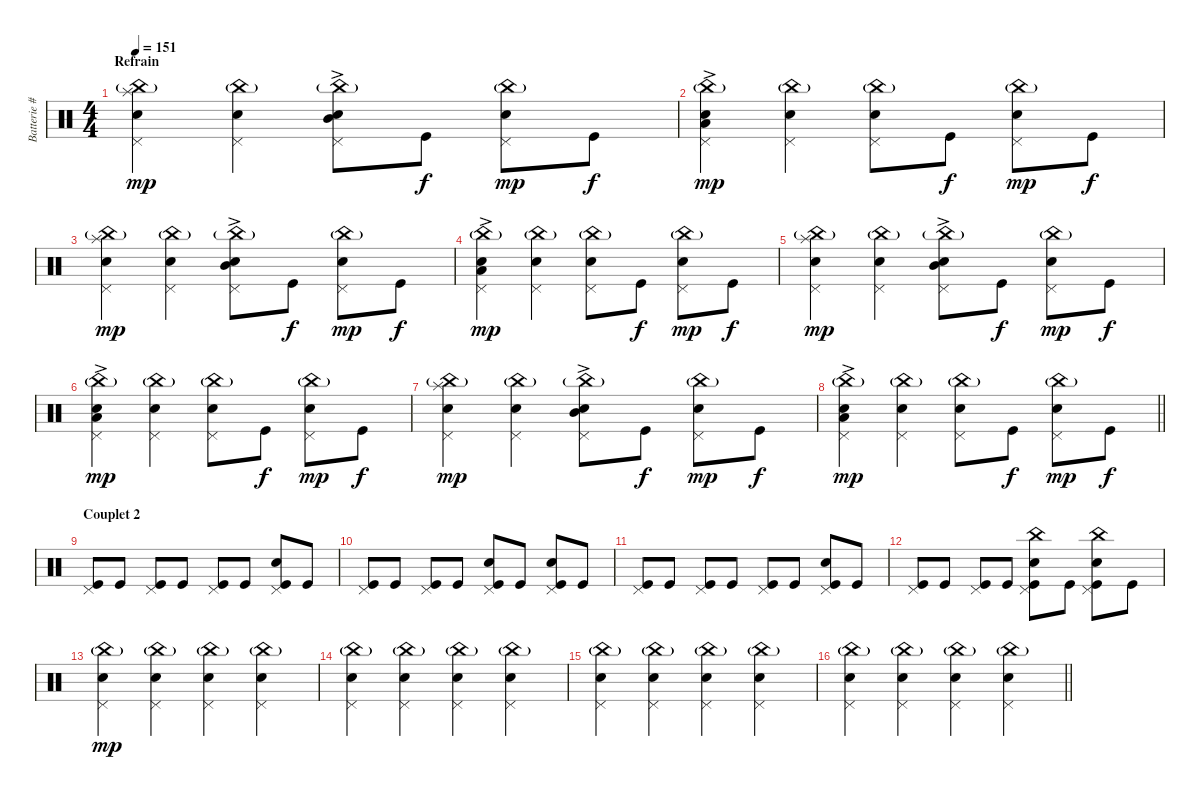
\track ("Batterie # S.Hewitt" "Batterie #") {instrument percussion}
\staff {score}
\articulation defaults
\ts (4 4)
\section ("" "Refrain")
\tempo 151
\clef neutral
\ks c
("Splash (hit)" "China (hit)"{g} "Electric Snare (hit)" "Pedal Hi-Hat (hit)").4{dy mp} ("China (hit)"{g} "Electric Snare (hit)" "Pedal Hi-Hat (hit)").4 ("Mid Tom (hit)"{ac} "China (hit)"{g} "Electric Snare (hit)" "Pedal Hi-Hat (hit)").8 "Kick (hit)".8{dy f} ("China (hit)"{g} "Electric Snare (hit)" "Pedal Hi-Hat (hit)").8{dy mp} "Kick (hit)".8{dy f} |
("Low Tom (hit)"{ac} "China (hit)"{g} "Electric Snare (hit)" "Pedal Hi-Hat (hit)").4{dy mp} ("China (hit)"{g} "Electric Snare (hit)" "Pedal Hi-Hat (hit)").4 ("China (hit)"{g} "Electric Snare (hit)" "Pedal Hi-Hat (hit)").8 "Kick (hit)".8{dy f} ("China (hit)"{g} "Electric Snare (hit)" "Pedal Hi-Hat (hit)").8{dy mp} "Kick (hit)".8{dy f} |
("Splash (hit)" "China (hit)"{g} "Electric Snare (hit)" "Pedal Hi-Hat (hit)").4{dy mp} ("China (hit)"{g} "Electric Snare (hit)" "Pedal Hi-Hat (hit)").4 ("Mid Tom (hit)"{ac} "China (hit)"{g} "Electric Snare (hit)" "Pedal Hi-Hat (hit)").8 "Kick (hit)".8{dy f} ("China (hit)"{g} "Electric Snare (hit)" "Pedal Hi-Hat (hit)").8{dy mp} "Kick (hit)".8{dy f} |
("Low Tom (hit)"{ac} "China (hit)"{g} "Electric Snare (hit)" "Pedal Hi-Hat (hit)").4{dy mp} ("China (hit)"{g} "Electric Snare (hit)" "Pedal Hi-Hat (hit)").4 ("China (hit)"{g} "Electric Snare (hit)" "Pedal Hi-Hat (hit)").8 "Kick (hit)".8{dy f} ("China (hit)"{g} "Electric Snare (hit)" "Pedal Hi-Hat (hit)").8{dy mp} "Kick (hit)".8{dy f} |
("Splash (hit)" "China (hit)"{g} "Electric Snare (hit)" "Pedal Hi-Hat (hit)").4{dy mp} ("China (hit)"{g} "Electric Snare (hit)" "Pedal Hi-Hat (hit)").4 ("Mid Tom (hit)"{ac} "China (hit)"{g} "Electric Snare (hit)" "Pedal Hi-Hat (hit)").8 "Kick (hit)".8{dy f} ("China (hit)"{g} "Electric Snare (hit)" "Pedal Hi-Hat (hit)").8{dy mp} "Kick (hit)".8{dy f} |
("Low Tom (hit)"{ac} "China (hit)"{g} "Electric Snare (hit)" "Pedal Hi-Hat (hit)").4{dy mp} ("China (hit)"{g} "Electric Snare (hit)" "Pedal Hi-Hat (hit)").4 ("China (hit)"{g} "Electric Snare (hit)" "Pedal Hi-Hat (hit)").8 "Kick (hit)".8{dy f} ("China (hit)"{g} "Electric Snare (hit)" "Pedal Hi-Hat (hit)").8{dy mp} "Kick (hit)".8{dy f} |
("Splash (hit)" "China (hit)"{g} "Electric Snare (hit)" "Pedal Hi-Hat (hit)").4{dy mp} ("China (hit)"{g} "Electric Snare (hit)" "Pedal Hi-Hat (hit)").4 ("Mid Tom (hit)"{ac} "China (hit)"{g} "Electric Snare (hit)" "Pedal Hi-Hat (hit)").8 "Kick (hit)".8{dy f} ("China (hit)"{g} "Electric Snare (hit)" "Pedal Hi-Hat (hit)").8{dy mp} "Kick (hit)".8{dy f} |
\barLineRight lightlight
("Low Tom (hit)"{ac} "China (hit)"{g} "Electric Snare (hit)" "Pedal Hi-Hat (hit)").4{dy mp} ("China (hit)"{g} "Electric Snare (hit)" "Pedal Hi-Hat (hit)").4 ("China (hit)"{g} "Electric Snare (hit)" "Pedal Hi-Hat (hit)").8 "Kick (hit)".8{dy f} ("China (hit)"{g} "Electric Snare (hit)" "Pedal Hi-Hat (hit)").8{dy mp} "Kick (hit)".8{dy f} |
\section ("" "Couplet 2")
("Kick (hit)" "Pedal Hi-Hat (hit)").8 "Kick (hit)".8 ("Kick (hit)" "Pedal Hi-Hat (hit)").8 "Kick (hit)".8 ("Kick (hit)" "Pedal Hi-Hat (hit)").8 "Kick (hit)".8 ("Kick (hit)" "Pedal Hi-Hat (hit)" "Electric Snare (hit)").8 "Kick (hit)".8 |
("Kick (hit)" "Pedal Hi-Hat (hit)").8 "Kick (hit)".8 ("Kick (hit)" "Pedal Hi-Hat (hit)").8 "Kick (hit)".8 ("Kick (hit)" "Pedal Hi-Hat (hit)" "Electric Snare (hit)").8 "Kick (hit)".8 ("Kick (hit)" "Pedal Hi-Hat (hit)" "Electric Snare (hit)").8 "Kick (hit)".8 |
("Kick (hit)" "Pedal Hi-Hat (hit)").8 "Kick (hit)".8 ("Kick (hit)" "Pedal Hi-Hat (hit)").8 "Kick (hit)".8 ("Kick (hit)" "Pedal Hi-Hat (hit)").8 "Kick (hit)".8 ("Kick (hit)" "Pedal Hi-Hat (hit)" "Electric Snare (hit)").8 "Kick (hit)".8 |
("Kick (hit)" "Pedal Hi-Hat (hit)").8 "Kick (hit)".8 ("Kick (hit)" "Pedal Hi-Hat (hit)").8 "Kick (hit)".8 ("Kick (hit)" "Pedal Hi-Hat (hit)" "Electric Snare (hit)" "China (hit)").8 "Kick (hit)".8 ("Kick (hit)" "Pedal Hi-Hat (hit)" "Electric Snare (hit)" "China (hit)").8 "Kick (hit)".8 |
("China (hit)"{g} "Electric Snare (hit)" "Pedal Hi-Hat (hit)").4{dy mp} ("China (hit)"{g} "Electric Snare (hit)" "Pedal Hi-Hat (hit)").4 ("China (hit)"{g} "Electric Snare (hit)" "Pedal Hi-Hat (hit)").4 ("China (hit)"{g} "Electric Snare (hit)" "Pedal Hi-Hat (hit)").4 |
("China (hit)"{g} "Electric Snare (hit)" "Pedal Hi-Hat (hit)").4 ("China (hit)"{g} "Electric Snare (hit)" "Pedal Hi-Hat (hit)").4 ("China (hit)"{g} "Electric Snare (hit)" "Pedal Hi-Hat (hit)").4 ("China (hit)"{g} "Electric Snare (hit)" "Pedal Hi-Hat (hit)").4 |
("China (hit)"{g} "Electric Snare (hit)" "Pedal Hi-Hat (hit)").4 ("China (hit)"{g} "Electric Snare (hit)" "Pedal Hi-Hat (hit)").4 ("China (hit)"{g} "Electric Snare (hit)" "Pedal Hi-Hat (hit)").4 ("China (hit)"{g} "Electric Snare (hit)" "Pedal Hi-Hat (hit)").4 |
\barLineRight lightlight
("China (hit)"{g} "Electric Snare (hit)" "Pedal Hi-Hat (hit)").4 ("China (hit)"{g} "Electric Snare (hit)" "Pedal Hi-Hat (hit)").4 ("China (hit)"{g} "Electric Snare (hit)" "Pedal Hi-Hat (hit)").4 ("China (hit)"{g} "Electric Snare (hit)" "Pedal Hi-Hat (hit)").4
